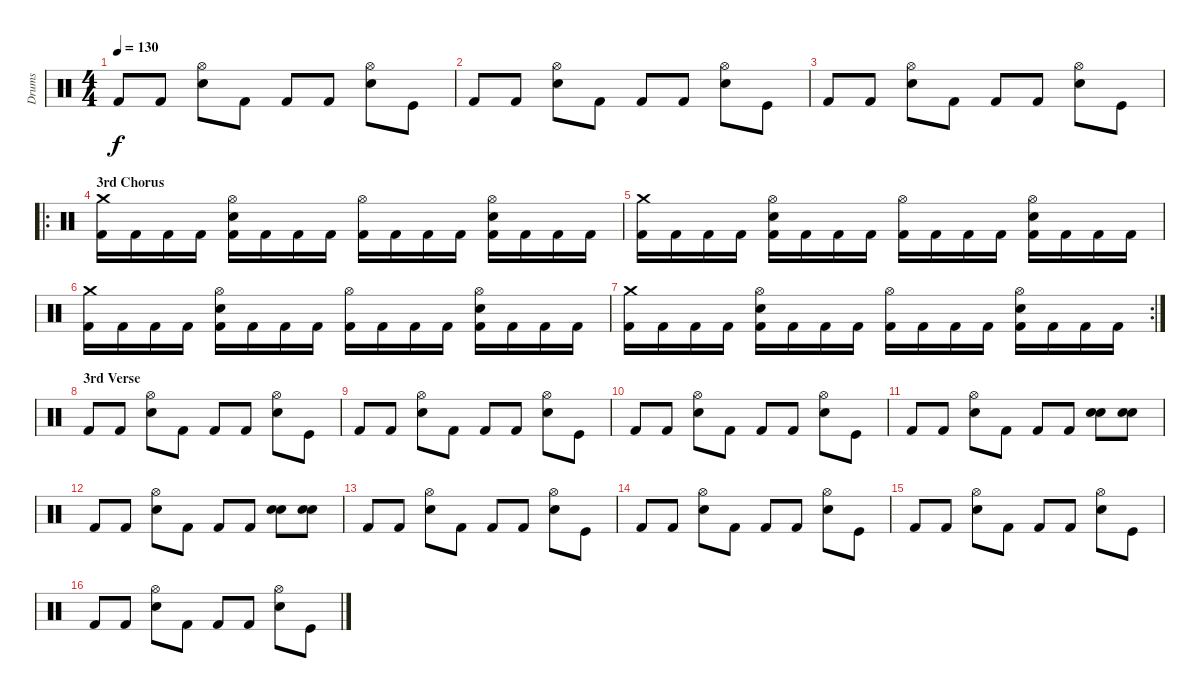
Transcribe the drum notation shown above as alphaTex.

\track ("Drums" "Drums") {instrument percussion}
\staff {score}
\articulation defaults
\ts (4 4)
\tempo 130
\clef neutral
\ks c "Kick (hit) 2".8{dy f} "Kick (hit) 2".8
("Electric Snare (hit)" "Hi-Hat (open)").8 "Kick (hit) 2".8 "Kick (hit) 2".8 "Kick (hit) 2".8 ("Electric Snare (hit)" "Hi-Hat (open)").8 "Kick (hit)".8 |
"Kick (hit) 2".8 "Kick (hit) 2".8 ("Electric Snare (hit)" "Hi-Hat (open)").8 "Kick (hit) 2".8 "Kick (hit) 2".8 "Kick (hit) 2".8 ("Electric Snare (hit)" "Hi-Hat (open)").8 "Kick (hit)".8 |
"Kick (hit) 2".8 "Kick (hit) 2".8 ("Electric Snare (hit)" "Hi-Hat (open)").8 "Kick (hit) 2".8 "Kick (hit) 2".8 "Kick (hit) 2".8 ("Electric Snare (hit)" "Hi-Hat (open)").8 "Kick (hit)".8 |
\ro
\section ("" "3rd Chorus")
("Kick (hit) 2" "Crash medium (hit)").16{volume 10} "Kick (hit) 2".16 "Kick (hit) 2".16 "Kick (hit) 2".16 ("Kick (hit) 2" "Electric Snare (hit)" "Hi-Hat (open)").16 "Kick (hit) 2".16 "Kick (hit) 2".16 "Kick (hit) 2".16 ("Kick (hit) 2" "Hi-Hat (open)").16 "Kick (hit) 2".16 "Kick (hit) 2".16 "Kick (hit) 2".16 ("Kick (hit) 2" "Electric Snare (hit)" "Hi-Hat (open)").16 "Kick (hit) 2".16 "Kick (hit) 2".16 "Kick (hit) 2".16 |
("Kick (hit) 2" "Crash medium (hit)").16 "Kick (hit) 2".16 "Kick (hit) 2".16 "Kick (hit) 2".16 ("Kick (hit) 2" "Electric Snare (hit)" "Hi-Hat (open)").16 "Kick (hit) 2".16 "Kick (hit) 2".16 "Kick (hit) 2".16 ("Kick (hit) 2" "Hi-Hat (open)").16 "Kick (hit) 2".16 "Kick (hit) 2".16 "Kick (hit) 2".16 ("Kick (hit) 2" "Electric Snare (hit)" "Hi-Hat (open)").16 "Kick (hit) 2".16 "Kick (hit) 2".16 "Kick (hit) 2".16 |
("Kick (hit) 2" "Crash medium (hit)").16 "Kick (hit) 2".16 "Kick (hit) 2".16 "Kick (hit) 2".16 ("Kick (hit) 2" "Electric Snare (hit)" "Hi-Hat (open)").16 "Kick (hit) 2".16 "Kick (hit) 2".16 "Kick (hit) 2".16 ("Kick (hit) 2" "Hi-Hat (open)").16 "Kick (hit) 2".16 "Kick (hit) 2".16 "Kick (hit) 2".16 ("Kick (hit) 2" "Electric Snare (hit)" "Hi-Hat (open)").16 "Kick (hit) 2".16 "Kick (hit) 2".16 "Kick (hit) 2".16 |
\rc 2
("Kick (hit) 2" "Crash medium (hit)").16 "Kick (hit) 2".16 "Kick (hit) 2".16 "Kick (hit) 2".16 ("Kick (hit) 2" "Electric Snare (hit)" "Hi-Hat (open)").16 "Kick (hit) 2".16 "Kick (hit) 2".16 "Kick (hit) 2".16 ("Kick (hit) 2" "Hi-Hat (open)").16 "Kick (hit) 2".16 "Kick (hit) 2".16 "Kick (hit) 2".16 ("Kick (hit) 2" "Electric Snare (hit)" "Hi-Hat (open)").16 "Kick (hit) 2".16 "Kick (hit) 2".16 "Kick (hit) 2".16 |
\section ("" "3rd Verse")
"Kick (hit) 2".8 "Kick (hit) 2".8 ("Electric Snare (hit)" "Hi-Hat (open)").8 "Kick (hit) 2".8 "Kick (hit) 2".8 "Kick (hit) 2".8 ("Electric Snare (hit)" "Hi-Hat (open)").8 "Kick (hit)".8 |
"Kick (hit) 2".8 "Kick (hit) 2".8 ("Electric Snare (hit)" "Hi-Hat (open)").8 "Kick (hit) 2".8 "Kick (hit) 2".8 "Kick (hit) 2".8 ("Electric Snare (hit)" "Hi-Hat (open)").8 "Kick (hit)".8 |
"Kick (hit) 2".8 "Kick (hit) 2".8 ("Electric Snare (hit)" "Hi-Hat (open)").8 "Kick (hit) 2".8 "Kick (hit) 2".8 "Kick (hit) 2".8 ("Electric Snare (hit)" "Hi-Hat (open)").8 "Kick (hit)".8 |
"Kick (hit) 2".8 "Kick (hit) 2".8 ("Electric Snare (hit)" "Hi-Hat (open)").8 "Kick (hit) 2".8 "Kick (hit) 2".8 "Kick (hit) 2".8 ("Electric Snare (hit)" "Electric Snare (hit)").8{bd 480} ("Electric Snare (hit)" "Electric Snare (hit)").8{bd 480} |
"Kick (hit) 2".8 "Kick (hit) 2".8 ("Electric Snare (hit)" "Hi-Hat (open)").8 "Kick (hit) 2".8 "Kick (hit) 2".8 "Kick (hit) 2".8 ("Electric Snare (hit)" "Electric Snare (hit)").8{bd 480} ("Electric Snare (hit)" "Electric Snare (hit)").8{bd 480} |
"Kick (hit) 2".8 "Kick (hit) 2".8 ("Electric Snare (hit)" "Hi-Hat (open)").8 "Kick (hit) 2".8 "Kick (hit) 2".8 "Kick (hit) 2".8 ("Electric Snare (hit)" "Hi-Hat (open)").8 "Kick (hit)".8 |
"Kick (hit) 2".8 "Kick (hit) 2".8 ("Electric Snare (hit)" "Hi-Hat (open)").8 "Kick (hit) 2".8 "Kick (hit) 2".8 "Kick (hit) 2".8 ("Electric Snare (hit)" "Hi-Hat (open)").8 "Kick (hit)".8 |
"Kick (hit) 2".8 "Kick (hit) 2".8 ("Electric Snare (hit)" "Hi-Hat (open)").8 "Kick (hit) 2".8 "Kick (hit) 2".8 "Kick (hit) 2".8 ("Electric Snare (hit)" "Hi-Hat (open)").8 "Kick (hit)".8 |
"Kick (hit) 2".8 "Kick (hit) 2".8 ("Electric Snare (hit)" "Hi-Hat (open)").8 "Kick (hit) 2".8 "Kick (hit) 2".8 "Kick (hit) 2".8 ("Electric Snare (hit)" "Hi-Hat (open)").8 "Kick (hit)".8
